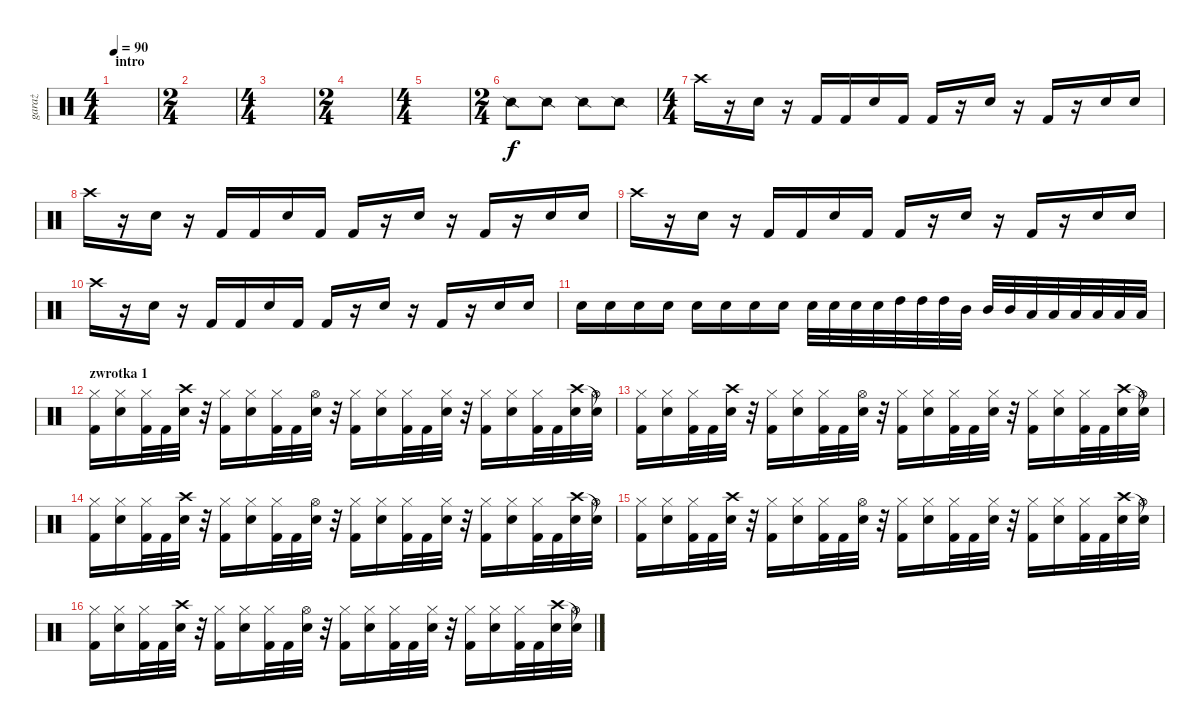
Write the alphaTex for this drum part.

\track ("garaż" "garaż") {instrument percussion}
\staff {score}
\articulation defaults
\ts (4 4)
\section ("" "intro")
\tempo 90
\clef neutral
\ks c
|
\ts (2 4)
|
\ts (4 4)
|
\ts (2 4)
|
\ts (4 4)
|
\ts (2 4)
"Snare (side stick) 2".8 "Snare (side stick) 2".8 "Snare (side stick) 2".8 "Snare (side stick) 2".8 |
\ts (4 4)
"Crash high (hit)".16 r.16 "Snare (hit) 2".16 r.16 "Kick (hit) 2".16 "Kick (hit) 2".16 "Snare (hit) 2".16 "Kick (hit) 2".16 "Kick (hit) 2".16 r.16 "Snare (hit) 2".16 r.16 "Kick (hit) 2".16 r.16 "Snare (hit) 2".16 "Snare (hit) 2".16 |
"Crash high (hit)".16 r.16 "Snare (hit) 2".16 r.16 "Kick (hit) 2".16 "Kick (hit) 2".16 "Snare (hit) 2".16 "Kick (hit) 2".16 "Kick (hit) 2".16 r.16 "Snare (hit) 2".16 r.16 "Kick (hit) 2".16 r.16 "Snare (hit) 2".16 "Snare (hit) 2".16 |
"Crash high (hit)".16 r.16 "Snare (hit) 2".16 r.16 "Kick (hit) 2".16 "Kick (hit) 2".16 "Snare (hit) 2".16 "Kick (hit) 2".16 "Kick (hit) 2".16 r.16 "Snare (hit) 2".16 r.16 "Kick (hit) 2".16 r.16 "Snare (hit) 2".16 "Snare (hit) 2".16 |
"Crash high (hit)".16 r.16 "Snare (hit) 2".16 r.16 "Kick (hit) 2".16 "Kick (hit) 2".16 "Snare (hit) 2".16 "Kick (hit) 2".16 "Kick (hit) 2".16 r.16 "Snare (hit) 2".16 r.16 "Kick (hit) 2".16 r.16 "Snare (hit) 2".16 "Snare (hit) 2".16 |
"Snare (hit) 2".16 "Snare (hit) 2".16 "Snare (hit) 2".16 "Snare (hit) 2".16 "Snare (hit) 2".16 "Snare (hit) 2".16 "Snare (hit) 2".16 "Snare (hit) 2".16 "Snare (hit) 2".32 "Snare (hit) 2".32 "Snare (hit) 2".32 "Snare (hit) 2".32 "High Tom (hit)".32 "High Tom (hit)".32 "High Tom (hit)".32 "Mid Tom (hit)".32 "Mid Tom (hit)".32 "Mid Tom (hit)".32 "Low Tom (hit)".32 "Low Tom (hit)".32 "Low Tom (hit)".32 "Low Floor Tom (hit)".32 "Low Floor Tom (hit)".32 "Low Floor Tom (hit)".32 |
\section ("" "zwrotka 1")
("Hi-Hat (closed)" "Kick (hit) 2").16 ("Hi-Hat (closed)" "Snare (hit) 2").16 ("Hi-Hat (closed)" "Kick (hit) 2").32 "Kick (hit) 2".32 ("Crash high (hit)" "Snare (hit) 2").32 r.32 ("Hi-Hat (closed)" "Kick (hit) 2").16 ("Hi-Hat (closed)" "Snare (hit) 2").16 ("Hi-Hat (closed)" "Kick (hit) 2").32 "Kick (hit) 2".32 ("Hi-Hat (open)" "Snare (hit) 2").32 r.32 ("Hi-Hat (closed)" "Kick (hit) 2").16 ("Hi-Hat (closed)" "Snare (hit) 2").16 ("Hi-Hat (closed)" "Kick (hit) 2").32 "Kick (hit) 2".32 ("Hi-Hat (closed)" "Snare (hit) 2").32 r.32 ("Hi-Hat (closed)" "Kick (hit) 2").16 ("Hi-Hat (closed)" "Snare (hit) 2").16 ("Hi-Hat (closed)" "Kick (hit) 2").32 "Kick (hit) 2".32 ("Crash high (hit)" "Snare (hit) 2").32 ("Snare (hit)"{t} "Hi-Hat (open)").32 |
("Hi-Hat (closed)" "Kick (hit) 2").16 ("Hi-Hat (closed)" "Snare (hit) 2").16 ("Hi-Hat (closed)" "Kick (hit) 2").32 "Kick (hit) 2".32 ("Crash high (hit)" "Snare (hit) 2").32 r.32 ("Hi-Hat (closed)" "Kick (hit) 2").16 ("Hi-Hat (closed)" "Snare (hit) 2").16 ("Hi-Hat (closed)" "Kick (hit) 2").32 "Kick (hit) 2".32 ("Hi-Hat (open)" "Snare (hit) 2").32 r.32 ("Hi-Hat (closed)" "Kick (hit) 2").16 ("Hi-Hat (closed)" "Snare (hit) 2").16 ("Hi-Hat (closed)" "Kick (hit) 2").32 "Kick (hit) 2".32 ("Hi-Hat (closed)" "Snare (hit) 2").32 r.32 ("Hi-Hat (closed)" "Kick (hit) 2").16 ("Hi-Hat (closed)" "Snare (hit) 2").16 ("Hi-Hat (closed)" "Kick (hit) 2").32 "Kick (hit) 2".32 ("Crash high (hit)" "Snare (hit) 2").32 ("Snare (hit)"{t} "Hi-Hat (open)").32 |
("Hi-Hat (closed)" "Kick (hit) 2").16 ("Hi-Hat (closed)" "Snare (hit) 2").16 ("Hi-Hat (closed)" "Kick (hit) 2").32 "Kick (hit) 2".32 ("Crash high (hit)" "Snare (hit) 2").32 r.32 ("Hi-Hat (closed)" "Kick (hit) 2").16 ("Hi-Hat (closed)" "Snare (hit) 2").16 ("Hi-Hat (closed)" "Kick (hit) 2").32 "Kick (hit) 2".32 ("Hi-Hat (open)" "Snare (hit) 2").32 r.32 ("Hi-Hat (closed)" "Kick (hit) 2").16 ("Hi-Hat (closed)" "Snare (hit) 2").16 ("Hi-Hat (closed)" "Kick (hit) 2").32 "Kick (hit) 2".32 ("Hi-Hat (closed)" "Snare (hit) 2").32 r.32 ("Hi-Hat (closed)" "Kick (hit) 2").16 ("Hi-Hat (closed)" "Snare (hit) 2").16 ("Hi-Hat (closed)" "Kick (hit) 2").32 "Kick (hit) 2".32 ("Crash high (hit)" "Snare (hit) 2").32 ("Snare (hit)"{t} "Hi-Hat (open)").32 |
("Hi-Hat (closed)" "Kick (hit) 2").16 ("Hi-Hat (closed)" "Snare (hit) 2").16 ("Hi-Hat (closed)" "Kick (hit) 2").32 "Kick (hit) 2".32 ("Crash high (hit)" "Snare (hit) 2").32 r.32 ("Hi-Hat (closed)" "Kick (hit) 2").16 ("Hi-Hat (closed)" "Snare (hit) 2").16 ("Hi-Hat (closed)" "Kick (hit) 2").32 "Kick (hit) 2".32 ("Hi-Hat (open)" "Snare (hit) 2").32 r.32 ("Hi-Hat (closed)" "Kick (hit) 2").16 ("Hi-Hat (closed)" "Snare (hit) 2").16 ("Hi-Hat (closed)" "Kick (hit) 2").32 "Kick (hit) 2".32 ("Hi-Hat (closed)" "Snare (hit) 2").32 r.32 ("Hi-Hat (closed)" "Kick (hit) 2").16 ("Hi-Hat (closed)" "Snare (hit) 2").16 ("Hi-Hat (closed)" "Kick (hit) 2").32 "Kick (hit) 2".32 ("Crash high (hit)" "Snare (hit) 2").32 ("Snare (hit)"{t} "Hi-Hat (open)").32 |
("Hi-Hat (closed)" "Kick (hit) 2").16 ("Hi-Hat (closed)" "Snare (hit) 2").16 ("Hi-Hat (closed)" "Kick (hit) 2").32 "Kick (hit) 2".32 ("Crash high (hit)" "Snare (hit) 2").32 r.32 ("Hi-Hat (closed)" "Kick (hit) 2").16 ("Hi-Hat (closed)" "Snare (hit) 2").16 ("Hi-Hat (closed)" "Kick (hit) 2").32 "Kick (hit) 2".32 ("Hi-Hat (open)" "Snare (hit) 2").32 r.32 ("Hi-Hat (closed)" "Kick (hit) 2").16 ("Hi-Hat (closed)" "Snare (hit) 2").16 ("Hi-Hat (closed)" "Kick (hit) 2").32 "Kick (hit) 2".32 ("Hi-Hat (closed)" "Snare (hit) 2").32 r.32 ("Hi-Hat (closed)" "Kick (hit) 2").16 ("Hi-Hat (closed)" "Snare (hit) 2").16 ("Hi-Hat (closed)" "Kick (hit) 2").32 "Kick (hit) 2".32 ("Crash high (hit)" "Snare (hit) 2").32 ("Snare (hit)"{t} "Hi-Hat (open)").32
